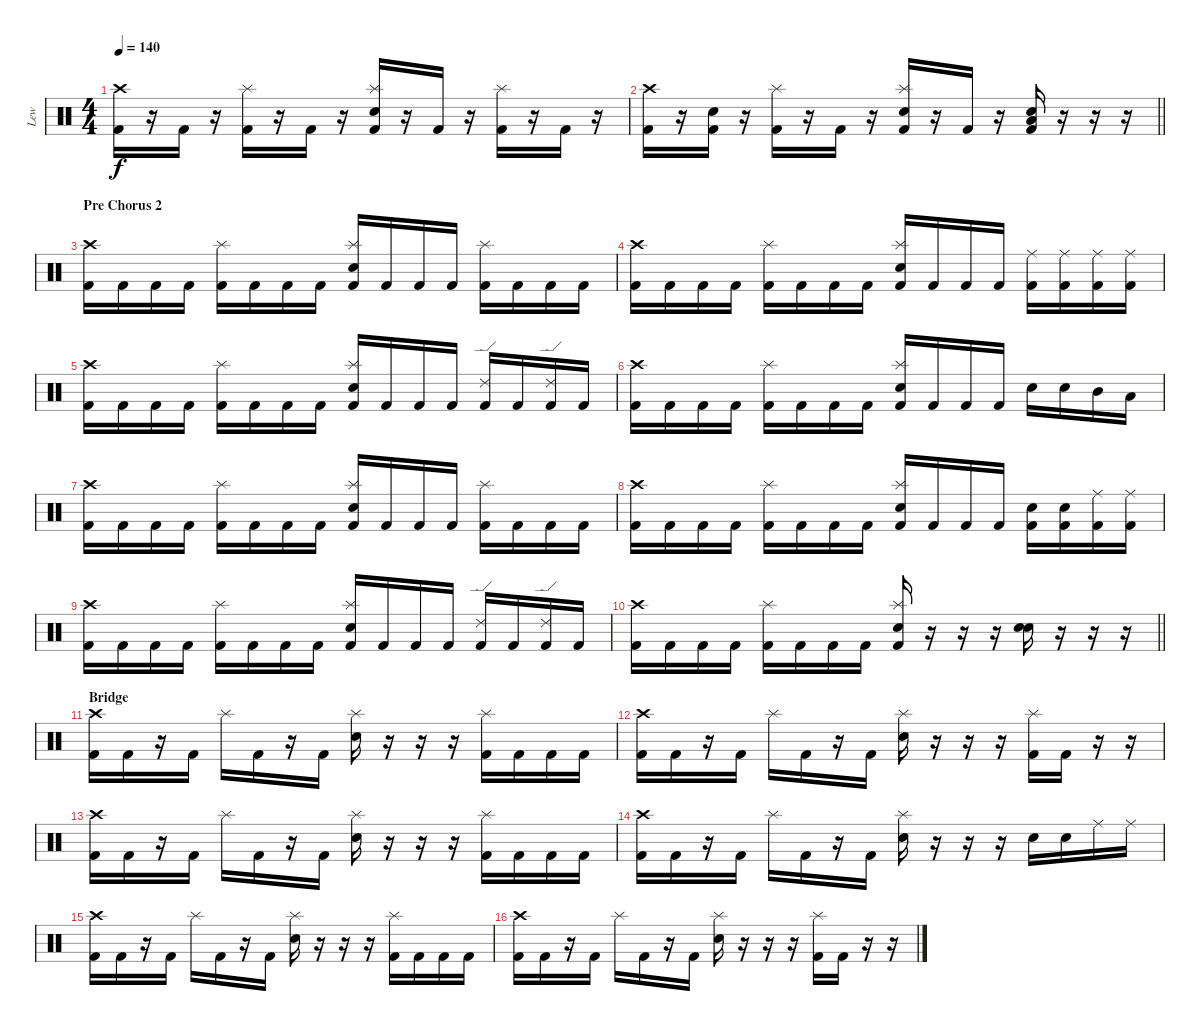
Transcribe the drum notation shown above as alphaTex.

\track ("Lew" "Lew") {instrument percussion}
\staff {score}
\articulation defaults
\ts (4 4)
\tempo 140
\clef neutral
\ks c
("Crash high (hit)" "Kick (hit) 2").16{dy f} r.16 "Kick (hit) 2".16 r.16 ("Splash (hit)" "Kick (hit) 2").16 r.16 "Kick (hit) 2".16 r.16 ("Splash (hit)" "Electric Snare (hit)" "Kick (hit) 2").16 r.16 "Kick (hit) 2".16 r.16 ("Splash (hit)" "Kick (hit) 2").16 r.16 "Kick (hit) 2".16 r.16 |
\barLineRight lightlight
("Crash high (hit)" "Kick (hit) 2").16 r.16 ("Electric Snare (hit)" "Kick (hit) 2").16 r.16 ("Splash (hit)" "Kick (hit) 2").16 r.16 "Kick (hit) 2".16 r.16 ("Splash (hit)" "Electric Snare (hit)" "Kick (hit) 2").16 r.16 "Kick (hit) 2".16 r.16 ("Low Tom (hit)" "Electric Snare (hit)" "Kick (hit) 2").16 r.16 r.16 r.16 |
\section ("" "Pre Chorus 2")
("Crash high (hit)" "Kick (hit) 2").16 "Kick (hit) 2".16 "Kick (hit) 2".16 "Kick (hit) 2".16 ("Splash (hit)" "Kick (hit) 2").16 "Kick (hit) 2".16 "Kick (hit) 2".16 "Kick (hit) 2".16 ("Splash (hit)" "Electric Snare (hit)" "Kick (hit) 2").16 "Kick (hit) 2".16 "Kick (hit) 2".16 "Kick (hit) 2".16 ("Splash (hit)" "Kick (hit) 2").16 "Kick (hit) 2".16 "Kick (hit) 2".16 "Kick (hit) 2".16 |
("Crash high (hit)" "Kick (hit) 2").16 "Kick (hit) 2".16 "Kick (hit) 2".16 "Kick (hit) 2".16 ("Splash (hit)" "Kick (hit) 2").16 "Kick (hit) 2".16 "Kick (hit) 2".16 "Kick (hit) 2".16 ("Splash (hit)" "Electric Snare (hit)" "Kick (hit) 2").16 "Kick (hit) 2".16 "Kick (hit) 2".16 "Kick (hit) 2".16 ("Ride (middle)" "Kick (hit) 2").16 ("Ride (middle)" "Kick (hit) 2").16 ("Ride (middle)" "Kick (hit) 2").16 ("Ride (middle)" "Kick (hit) 2").16 |
("Crash high (hit)" "Kick (hit) 2").16 "Kick (hit) 2".16 "Kick (hit) 2".16 "Kick (hit) 2".16 ("Splash (hit)" "Kick (hit) 2").16 "Kick (hit) 2".16 "Kick (hit) 2".16 "Kick (hit) 2".16 ("Splash (hit)" "Electric Snare (hit)" "Kick (hit) 2").16 "Kick (hit) 2".16 "Kick (hit) 2".16 "Kick (hit) 2".16 ("Ride (edge) 2" "Kick (hit) 2").16 "Kick (hit) 2".16 ("Ride (edge) 2" "Kick (hit) 2").16 "Kick (hit) 2".16 |
("Crash high (hit)" "Kick (hit) 2").16 "Kick (hit) 2".16 "Kick (hit) 2".16 "Kick (hit) 2".16 ("Splash (hit)" "Kick (hit) 2").16 "Kick (hit) 2".16 "Kick (hit) 2".16 "Kick (hit) 2".16 ("Splash (hit)" "Electric Snare (hit)" "Kick (hit) 2").16 "Kick (hit) 2".16 "Kick (hit) 2".16 "Kick (hit) 2".16 "Electric Snare (hit)".16 "Electric Snare (hit)".16 "Mid Tom (hit)".16 "Low Tom (hit)".16 |
("Crash high (hit)" "Kick (hit) 2").16 "Kick (hit) 2".16 "Kick (hit) 2".16 "Kick (hit) 2".16 ("Splash (hit)" "Kick (hit) 2").16 "Kick (hit) 2".16 "Kick (hit) 2".16 "Kick (hit) 2".16 ("Splash (hit)" "Electric Snare (hit)" "Kick (hit) 2").16 "Kick (hit) 2".16 "Kick (hit) 2".16 "Kick (hit) 2".16 ("Splash (hit)" "Kick (hit) 2").16 "Kick (hit) 2".16 "Kick (hit) 2".16 "Kick (hit) 2".16 |
("Crash high (hit)" "Kick (hit) 2").16 "Kick (hit) 2".16 "Kick (hit) 2".16 "Kick (hit) 2".16 ("Splash (hit)" "Kick (hit) 2").16 "Kick (hit) 2".16 "Kick (hit) 2".16 "Kick (hit) 2".16 ("Splash (hit)" "Electric Snare (hit)" "Kick (hit) 2").16 "Kick (hit) 2".16 "Kick (hit) 2".16 "Kick (hit) 2".16 ("Electric Snare (hit)" "Kick (hit) 2").16 ("Electric Snare (hit)" "Kick (hit) 2").16 ("Ride (middle)" "Kick (hit) 2").16 ("Ride (middle)" "Kick (hit) 2").16 |
("Crash high (hit)" "Kick (hit) 2").16 "Kick (hit) 2".16 "Kick (hit) 2".16 "Kick (hit) 2".16 ("Splash (hit)" "Kick (hit) 2").16 "Kick (hit) 2".16 "Kick (hit) 2".16 "Kick (hit) 2".16 ("Splash (hit)" "Electric Snare (hit)" "Kick (hit) 2").16 "Kick (hit) 2".16 "Kick (hit) 2".16 "Kick (hit) 2".16 ("Ride (edge) 2" "Kick (hit) 2").16 "Kick (hit) 2".16 ("Ride (edge) 2" "Kick (hit) 2").16 "Kick (hit) 2".16 |
\barLineRight lightlight
("Crash high (hit)" "Kick (hit) 2").16 "Kick (hit) 2".16 "Kick (hit) 2".16 "Kick (hit) 2".16 ("Splash (hit)" "Kick (hit) 2").16 "Kick (hit) 2".16 "Kick (hit) 2".16 "Kick (hit) 2".16 ("Splash (hit)" "Electric Snare (hit)" "Kick (hit) 2").16 r.16 r.16 r.16 ("Electric Snare (hit)" "Electric Snare (hit)").16 r.16 r.16 r.16 |
\section ("" "Bridge")
("Crash high (hit)" "Kick (hit) 2").16 "Kick (hit) 2".16 r.16 "Kick (hit) 2".16 "Splash (hit)".16 "Kick (hit) 2".16 r.16 "Kick (hit) 2".16 ("Splash (hit)" "Electric Snare (hit)").16 r.16 r.16 r.16 ("Splash (hit)" "Kick (hit) 2").16 "Kick (hit) 2".16 "Kick (hit) 2".16 "Kick (hit) 2".16 |
("Crash high (hit)" "Kick (hit) 2").16 "Kick (hit) 2".16 r.16 "Kick (hit) 2".16 "Splash (hit)".16 "Kick (hit) 2".16 r.16 "Kick (hit) 2".16 ("Splash (hit)" "Electric Snare (hit)").16 r.16 r.16 r.16 ("Splash (hit)" "Kick (hit) 2").16 "Kick (hit) 2".16 r.16 r.16 |
("Crash high (hit)" "Kick (hit) 2").16 "Kick (hit) 2".16 r.16 "Kick (hit) 2".16 "Splash (hit)".16 "Kick (hit) 2".16 r.16 "Kick (hit) 2".16 ("Splash (hit)" "Electric Snare (hit)").16 r.16 r.16 r.16 ("Splash (hit)" "Kick (hit) 2").16 "Kick (hit) 2".16 "Kick (hit) 2".16 "Kick (hit) 2".16 |
("Crash high (hit)" "Kick (hit) 2").16 "Kick (hit) 2".16 r.16 "Kick (hit) 2".16 "Splash (hit)".16 "Kick (hit) 2".16 r.16 "Kick (hit) 2".16 ("Splash (hit)" "Electric Snare (hit)").16 r.16 r.16 r.16 "Electric Snare (hit)".16 "Electric Snare (hit)".16 "Ride (middle)".16 "Ride (middle)".16 |
("Crash high (hit)" "Kick (hit) 2").16 "Kick (hit) 2".16 r.16 "Kick (hit) 2".16 "Splash (hit)".16 "Kick (hit) 2".16 r.16 "Kick (hit) 2".16 ("Splash (hit)" "Electric Snare (hit)").16 r.16 r.16 r.16 ("Splash (hit)" "Kick (hit) 2").16 "Kick (hit) 2".16 "Kick (hit) 2".16 "Kick (hit) 2".16 |
("Crash high (hit)" "Kick (hit) 2").16 "Kick (hit) 2".16 r.16 "Kick (hit) 2".16 "Splash (hit)".16 "Kick (hit) 2".16 r.16 "Kick (hit) 2".16 ("Splash (hit)" "Electric Snare (hit)").16 r.16 r.16 r.16 ("Splash (hit)" "Kick (hit) 2").16 "Kick (hit) 2".16 r.16 r.16
